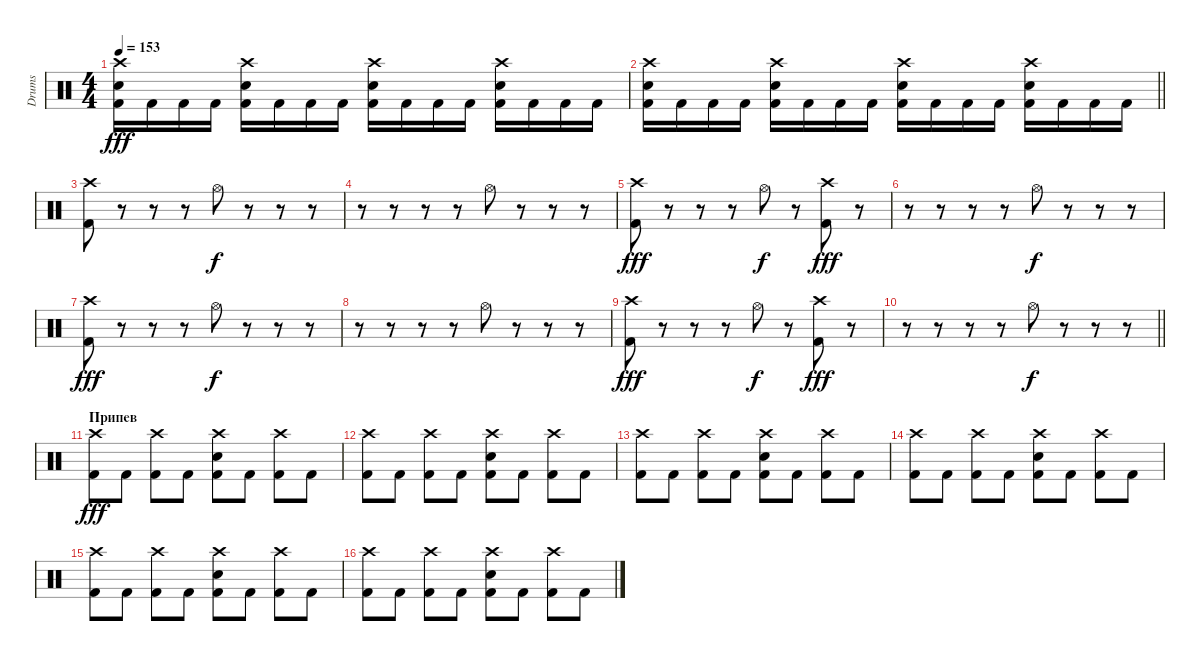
\track ("Drums" "Drums") {instrument percussion}
\staff {score}
\articulation defaults
\ts (4 4)
\tempo 153
\clef neutral
\ks c
("Crash high (hit)" "Electric Snare (hit)" "Kick (hit) 2").16{dy fff} "Kick (hit) 2".16 "Kick (hit) 2".16 "Kick (hit) 2".16 ("Crash high (hit)" "Electric Snare (hit)" "Kick (hit) 2").16 "Kick (hit) 2".16 "Kick (hit) 2".16 "Kick (hit) 2".16 ("Crash high (hit)" "Electric Snare (hit)" "Kick (hit) 2").16 "Kick (hit) 2".16 "Kick (hit) 2".16 "Kick (hit) 2".16 ("Crash high (hit)" "Electric Snare (hit)" "Kick (hit) 2").16 "Kick (hit) 2".16 "Kick (hit) 2".16 "Kick (hit) 2".16 |
\barLineRight lightlight
("Crash high (hit)" "Electric Snare (hit)" "Kick (hit) 2").16 "Kick (hit) 2".16 "Kick (hit) 2".16 "Kick (hit) 2".16 ("Crash high (hit)" "Electric Snare (hit)" "Kick (hit) 2").16 "Kick (hit) 2".16 "Kick (hit) 2".16 "Kick (hit) 2".16 ("Crash high (hit)" "Electric Snare (hit)" "Kick (hit) 2").16 "Kick (hit) 2".16 "Kick (hit) 2".16 "Kick (hit) 2".16 ("Crash high (hit)" "Electric Snare (hit)" "Kick (hit) 2").16 "Kick (hit) 2".16 "Kick (hit) 2".16 "Kick (hit) 2".16 |
\section ("" "")
("Crash high (hit)" "Kick (hit) 2").8 r.8 r.8 r.8 "Hi-Hat (open)".8{dy f} r.8 r.8 r.8 |
r.8 r.8 r.8 r.8 "Hi-Hat (open)".8 r.8 r.8 r.8 |
("Crash high (hit)" "Kick (hit) 2").8{dy fff} r.8 r.8 r.8 "Hi-Hat (open)".8{dy f} r.8 ("Crash high (hit)" "Kick (hit) 2").8{dy fff} r.8 |
r.8 r.8 r.8 r.8 "Hi-Hat (open)".8{dy f} r.8 r.8 r.8 |
("Crash high (hit)" "Kick (hit) 2").8{dy fff} r.8 r.8 r.8 "Hi-Hat (open)".8{dy f} r.8 r.8 r.8 |
r.8 r.8 r.8 r.8 "Hi-Hat (open)".8 r.8 r.8 r.8 |
("Crash high (hit)" "Kick (hit) 2").8{dy fff} r.8 r.8 r.8 "Hi-Hat (open)".8{dy f} r.8 ("Crash high (hit)" "Kick (hit) 2").8{dy fff} r.8 |
\barLineRight lightlight
r.8 r.8 r.8 r.8 "Hi-Hat (open)".8{dy f} r.8 r.8 r.8 |
\section ("" "Припев")
("Crash high (hit)" "Kick (hit) 2").8{dy fff} "Kick (hit) 2".8 ("Crash high (hit)" "Kick (hit) 2").8 "Kick (hit) 2".8 ("Crash high (hit)" "Electric Snare (hit)" "Kick (hit) 2").8 "Kick (hit) 2".8 ("Crash high (hit)" "Kick (hit) 2").8 "Kick (hit) 2".8 |
("Crash high (hit)" "Kick (hit) 2").8 "Kick (hit) 2".8 ("Crash high (hit)" "Kick (hit) 2").8 "Kick (hit) 2".8 ("Crash high (hit)" "Electric Snare (hit)" "Kick (hit) 2").8 "Kick (hit) 2".8 ("Crash high (hit)" "Kick (hit) 2").8 "Kick (hit) 2".8 |
("Crash high (hit)" "Kick (hit) 2").8 "Kick (hit) 2".8 ("Crash high (hit)" "Kick (hit) 2").8 "Kick (hit) 2".8 ("Crash high (hit)" "Electric Snare (hit)" "Kick (hit) 2").8 "Kick (hit) 2".8 ("Crash high (hit)" "Kick (hit) 2").8 "Kick (hit) 2".8 |
("Crash high (hit)" "Kick (hit) 2").8 "Kick (hit) 2".8 ("Crash high (hit)" "Kick (hit) 2").8 "Kick (hit) 2".8 ("Crash high (hit)" "Electric Snare (hit)" "Kick (hit) 2").8 "Kick (hit) 2".8 ("Crash high (hit)" "Kick (hit) 2").8 "Kick (hit) 2".8 |
("Crash high (hit)" "Kick (hit) 2").8 "Kick (hit) 2".8 ("Crash high (hit)" "Kick (hit) 2").8 "Kick (hit) 2".8 ("Crash high (hit)" "Electric Snare (hit)" "Kick (hit) 2").8 "Kick (hit) 2".8 ("Crash high (hit)" "Kick (hit) 2").8 "Kick (hit) 2".8 |
("Crash high (hit)" "Kick (hit) 2").8 "Kick (hit) 2".8 ("Crash high (hit)" "Kick (hit) 2").8 "Kick (hit) 2".8 ("Crash high (hit)" "Electric Snare (hit)" "Kick (hit) 2").8 "Kick (hit) 2".8 ("Crash high (hit)" "Kick (hit) 2").8 "Kick (hit) 2".8
